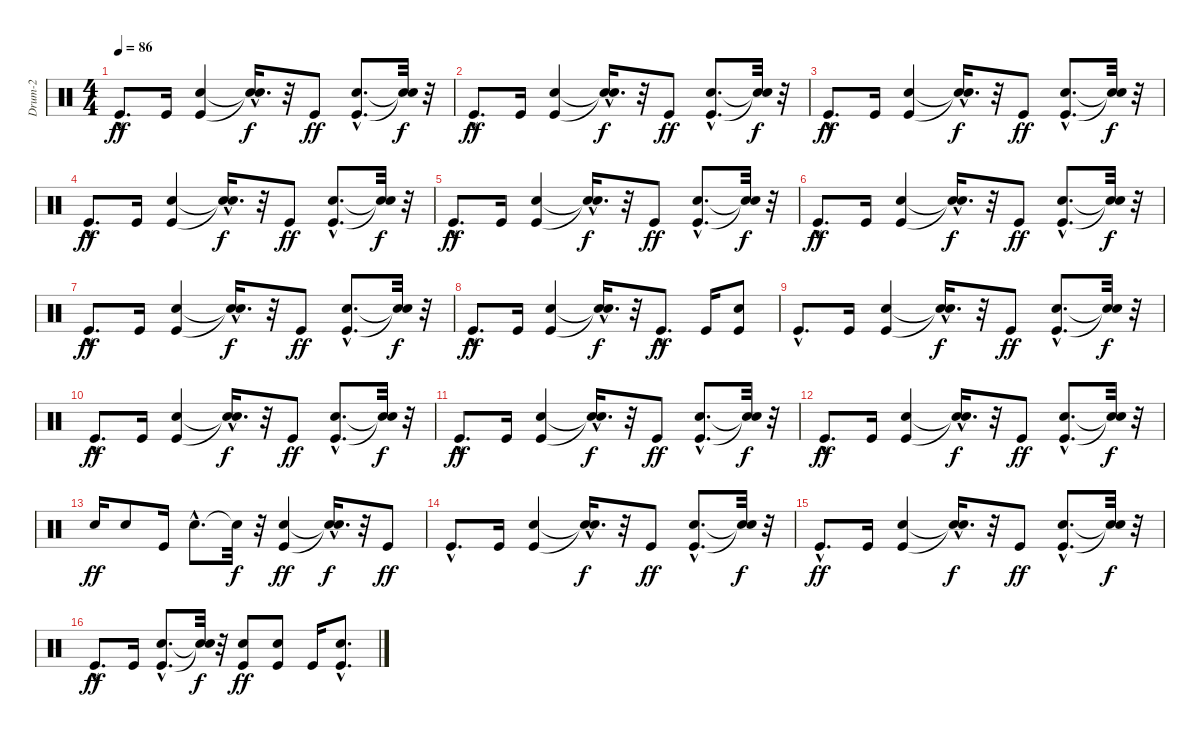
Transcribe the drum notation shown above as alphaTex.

\track ("Drum-2" "Drum-2") {instrument percussion}
\staff {score}
\articulation defaults
\ts (4 4)
\tempo 86
\clef neutral
\ks c "Kick (hit)"{hac}.8{d dy ff} "Kick (hit)".16
("Kick (hit)" "Electric Snare (hit)").4 ("Snare (hit)"{hac t} "Snare (hit)"{hac t}).16{d dy f} r.32 "Kick (hit)".8{dy ff} ("Kick (hit)"{hac} "Electric Snare (hit)"{hac}).8{d} ("Snare (hit)"{t} "Snare (hit)"{t}).32{dy f} r.32 |
"Kick (hit)"{hac}.8{d dy ff} "Kick (hit)".16 ("Kick (hit)" "Electric Snare (hit)").4 ("Snare (hit)"{hac t} "Snare (hit)"{hac t}).16{d dy f} r.32 "Kick (hit)".8{dy ff} ("Kick (hit)"{hac} "Electric Snare (hit)"{hac}).8{d} ("Snare (hit)"{t} "Snare (hit)"{t}).32{dy f} r.32 |
"Kick (hit)"{hac}.8{d dy ff} "Kick (hit)".16 ("Kick (hit)" "Electric Snare (hit)").4 ("Snare (hit)"{hac t} "Snare (hit)"{hac t}).16{d dy f} r.32 "Kick (hit)".8{dy ff} ("Kick (hit)"{hac} "Electric Snare (hit)"{hac}).8{d} ("Snare (hit)"{t} "Snare (hit)"{t}).32{dy f} r.32 |
"Kick (hit)"{hac}.8{d dy ff} "Kick (hit)".16 ("Kick (hit)" "Electric Snare (hit)").4 ("Snare (hit)"{hac t} "Snare (hit)"{hac t}).16{d dy f} r.32 "Kick (hit)".8{dy ff} ("Kick (hit)"{hac} "Electric Snare (hit)"{hac}).8{d} ("Snare (hit)"{t} "Snare (hit)"{t}).32{dy f} r.32 |
"Kick (hit)"{hac}.8{d dy ff} "Kick (hit)".16 ("Kick (hit)" "Electric Snare (hit)").4 ("Snare (hit)"{hac t} "Snare (hit)"{hac t}).16{d dy f} r.32 "Kick (hit)".8{dy ff} ("Kick (hit)"{hac} "Electric Snare (hit)"{hac}).8{d} ("Snare (hit)"{t} "Snare (hit)"{t}).32{dy f} r.32 |
"Kick (hit)"{hac}.8{d dy ff} "Kick (hit)".16 ("Kick (hit)" "Electric Snare (hit)").4 ("Snare (hit)"{hac t} "Snare (hit)"{hac t}).16{d dy f} r.32 "Kick (hit)".8{dy ff} ("Kick (hit)"{hac} "Electric Snare (hit)"{hac}).8{d} ("Snare (hit)"{t} "Snare (hit)"{t}).32{dy f} r.32 |
"Kick (hit)"{hac}.8{d dy ff} "Kick (hit)".16 ("Kick (hit)" "Electric Snare (hit)").4 ("Snare (hit)"{hac t} "Snare (hit)"{hac t}).16{d dy f} r.32 "Kick (hit)".8{dy ff} ("Kick (hit)"{hac} "Electric Snare (hit)"{hac}).8{d} ("Snare (hit)"{t} "Snare (hit)"{t}).32{dy f} r.32 |
"Kick (hit)"{hac}.8{d dy ff} "Kick (hit)".16 ("Kick (hit)" "Electric Snare (hit)").4 ("Snare (hit)"{hac t} "Snare (hit)"{hac t}).16{d dy f} r.32 "Kick (hit)"{hac}.8{d dy ff} "Kick (hit)".16 ("Kick (hit)" "Electric Snare (hit)").8 |
"Kick (hit)"{hac}.8{d} "Kick (hit)".16 ("Kick (hit)" "Electric Snare (hit)").4 ("Snare (hit)"{hac t} "Snare (hit)"{hac t}).16{d dy f} r.32 "Kick (hit)".8{dy ff} ("Kick (hit)"{hac} "Electric Snare (hit)"{hac}).8{d} ("Snare (hit)"{t} "Snare (hit)"{t}).32{dy f} r.32 |
"Kick (hit)"{hac}.8{d dy ff} "Kick (hit)".16 ("Kick (hit)" "Electric Snare (hit)").4 ("Snare (hit)"{hac t} "Snare (hit)"{hac t}).16{d dy f} r.32 "Kick (hit)".8{dy ff} ("Kick (hit)"{hac} "Electric Snare (hit)"{hac}).8{d} ("Snare (hit)"{t} "Snare (hit)"{t}).32{dy f} r.32 |
"Kick (hit)"{hac}.8{d dy ff} "Kick (hit)".16 ("Kick (hit)" "Electric Snare (hit)").4 ("Snare (hit)"{hac t} "Snare (hit)"{hac t}).16{d dy f} r.32 "Kick (hit)".8{dy ff} ("Kick (hit)"{hac} "Electric Snare (hit)"{hac}).8{d} ("Snare (hit)"{t} "Snare (hit)"{t}).32{dy f} r.32 |
"Kick (hit)"{hac}.8{d dy ff} "Kick (hit)".16 ("Kick (hit)" "Electric Snare (hit)").4 ("Snare (hit)"{hac t} "Snare (hit)"{hac t}).16{d dy f} r.32 "Kick (hit)".8{dy ff} ("Kick (hit)"{hac} "Electric Snare (hit)"{hac}).8{d} ("Snare (hit)"{t} "Snare (hit)"{t}).32{dy f} r.32 |
"Electric Snare (hit)".16{dy ff} "Electric Snare (hit)".8 "Kick (hit)".16 "Electric Snare (hit)"{hac}.8{d} "Snare (hit)"{t}.32{dy f} r.32 ("Kick (hit)" "Electric Snare (hit)").4{dy ff} ("Snare (hit)"{hac t} "Snare (hit)"{hac t}).16{d dy f} r.32 "Kick (hit)".8{dy ff} |
"Kick (hit)"{hac}.8{d} "Kick (hit)".16 ("Kick (hit)" "Electric Snare (hit)").4 ("Snare (hit)"{hac t} "Snare (hit)"{hac t}).16{d dy f} r.32 "Kick (hit)".8{dy ff} ("Kick (hit)"{hac} "Electric Snare (hit)"{hac}).8{d} ("Snare (hit)"{t} "Snare (hit)"{t}).32{dy f} r.32 |
"Kick (hit)"{hac}.8{d dy ff} "Kick (hit)".16 ("Kick (hit)" "Electric Snare (hit)").4 ("Snare (hit)"{hac t} "Snare (hit)"{hac t}).16{d dy f} r.32 "Kick (hit)".8{dy ff} ("Kick (hit)"{hac} "Electric Snare (hit)"{hac}).8{d} ("Snare (hit)"{t} "Snare (hit)"{t}).32{dy f} r.32 |
"Kick (hit)"{hac}.8{d dy ff} "Kick (hit)".16 ("Kick (hit)"{hac} "Electric Snare (hit)"{hac}).8{d} ("Snare (hit)"{t} "Snare (hit)"{t}).32{dy f} r.32 ("Kick (hit)" "Electric Snare (hit)").8{dy ff} ("Kick (hit)" "Electric Snare (hit)").8 "Kick (hit)".16 ("Kick (hit)"{hac} "Electric Snare (hit)"{hac}).8{d}
